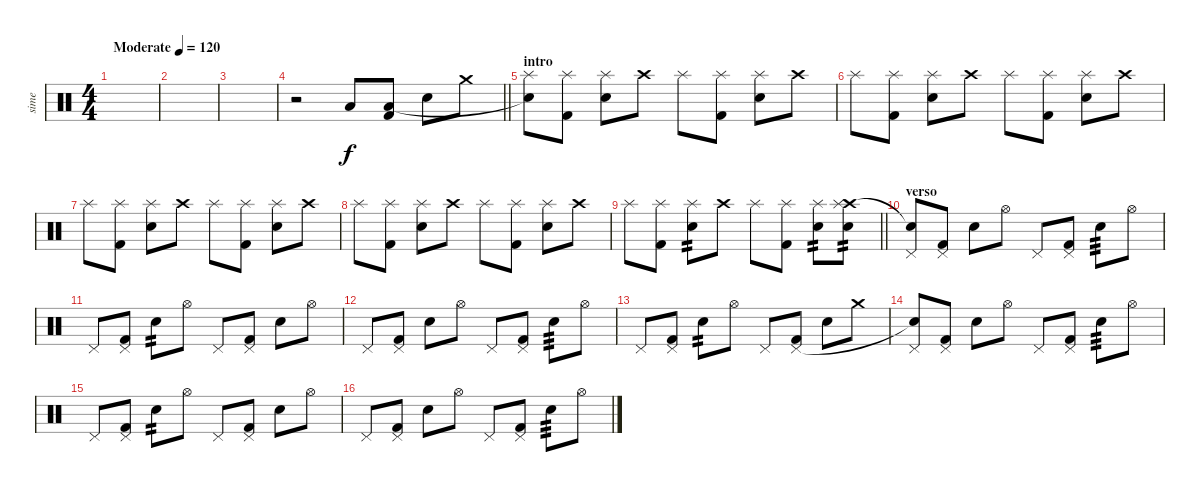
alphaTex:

\track ("sime" "sime") {instrument percussion}
\staff {score}
\articulation defaults
\ts (4 4)
\tempo (120 "Moderate")
\clef neutral
\ks c
|
|
|
\barLineRight lightlight
r.2 "Low Floor Tom (hit)".8 ("Kick (hit) 2" "Low Floor Tom (hit)").8 "Snare (hit) 2".8 "Crash medium (hit)".8 |
\section ("" "intro")
("Splash (hit)" "Snare (hit)"{t}).8 ("Kick (hit) 2" "Splash (hit)").8 ("Snare (hit) 2" "Splash (hit)").8 "Crash high (hit)".8 "Splash (hit)".8 ("Kick (hit) 2" "Splash (hit)").8 ("Snare (hit) 2" "Splash (hit)").8 "Crash high (hit)".8 |
"Splash (hit)".8 ("Kick (hit) 2" "Splash (hit)").8 ("Snare (hit) 2" "Splash (hit)").8 "Crash high (hit)".8 "Splash (hit)".8 ("Kick (hit) 2" "Splash (hit)").8 ("Snare (hit) 2" "Splash (hit)").8 "Crash high (hit)".8 |
"Splash (hit)".8 ("Kick (hit) 2" "Splash (hit)").8 ("Snare (hit) 2" "Splash (hit)").8 "Crash high (hit)".8 "Splash (hit)".8 ("Kick (hit) 2" "Splash (hit)").8 ("Snare (hit) 2" "Splash (hit)").8 "Crash high (hit)".8 |
"Splash (hit)".8 ("Kick (hit) 2" "Splash (hit)").8 ("Snare (hit) 2" "Splash (hit)").8 "Crash high (hit)".8 "Splash (hit)".8 ("Kick (hit) 2" "Splash (hit)").8 ("Snare (hit) 2" "Splash (hit)").8 "Crash high (hit)".8 |
\barLineRight lightlight "Splash (hit)".8
("Kick (hit) 2" "Splash (hit)").8 ("Snare (hit) 2" "Splash (hit)").8{tp 2} "Crash high (hit)".8 "Splash (hit)".8 ("Kick (hit) 2" "Splash (hit)").8 ("Snare (hit) 2" "Splash (hit)").8{tp 2} ("Snare (hit) 2" "Crash high (hit)" "Splash (hit)").8{tp 2} |
\section ("" "verso")
("Pedal Hi-Hat (hit)" "Snare (hit)"{t}).8 ("Kick (hit) 2" "Pedal Hi-Hat (hit)").8 "Snare (hit) 2".8 "Hi-Hat (open)".8 "Pedal Hi-Hat (hit)".8 ("Kick (hit) 2" "Pedal Hi-Hat (hit)").8 "Snare (hit) 2".8{tp 3} "Hi-Hat (open)".8 |
"Pedal Hi-Hat (hit)".8 ("Kick (hit) 2" "Pedal Hi-Hat (hit)").8 "Snare (hit) 2".8{tp 2} "Hi-Hat (open)".8 "Pedal Hi-Hat (hit)".8 ("Kick (hit) 2" "Pedal Hi-Hat (hit)").8 "Snare (hit) 2".8 "Hi-Hat (open)".8 |
"Pedal Hi-Hat (hit)".8 ("Kick (hit) 2" "Pedal Hi-Hat (hit)").8 "Snare (hit) 2".8 "Hi-Hat (open)".8 "Pedal Hi-Hat (hit)".8 ("Kick (hit) 2" "Pedal Hi-Hat (hit)").8 "Snare (hit) 2".8{tp 3} "Hi-Hat (open)".8 |
"Pedal Hi-Hat (hit)".8 ("Kick (hit) 2" "Pedal Hi-Hat (hit)").8 "Snare (hit) 2".8{tp 2} "Hi-Hat (open)".8 "Pedal Hi-Hat (hit)".8 ("Kick (hit) 2" "Pedal Hi-Hat (hit)").8 "Snare (hit) 2".8 "Crash medium (hit)".8 |
("Pedal Hi-Hat (hit)" "Snare (hit)"{t}).8 ("Kick (hit) 2" "Pedal Hi-Hat (hit)").8 "Snare (hit) 2".8 "Hi-Hat (open)".8 "Pedal Hi-Hat (hit)".8 ("Kick (hit) 2" "Pedal Hi-Hat (hit)").8 "Snare (hit) 2".8{tp 3} "Hi-Hat (open)".8 |
"Pedal Hi-Hat (hit)".8 ("Kick (hit) 2" "Pedal Hi-Hat (hit)").8 "Snare (hit) 2".8{tp 2} "Hi-Hat (open)".8 "Pedal Hi-Hat (hit)".8 ("Kick (hit) 2" "Pedal Hi-Hat (hit)").8 "Snare (hit) 2".8 "Hi-Hat (open)".8 |
"Pedal Hi-Hat (hit)".8 ("Kick (hit) 2" "Pedal Hi-Hat (hit)").8 "Snare (hit) 2".8 "Hi-Hat (open)".8 "Pedal Hi-Hat (hit)".8 ("Kick (hit) 2" "Pedal Hi-Hat (hit)").8 "Snare (hit) 2".8{tp 3} "Hi-Hat (open)".8
